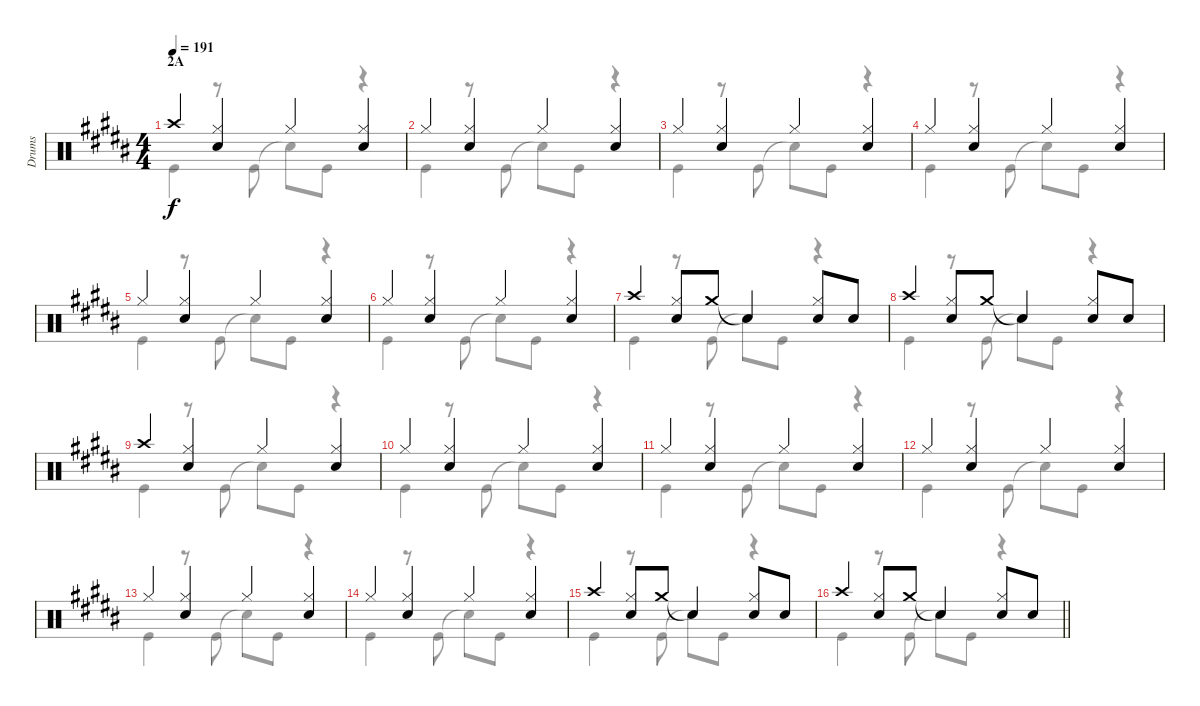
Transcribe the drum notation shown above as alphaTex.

\track ("Drums" "Drums") {instrument percussion}
\staff {score}
\articulation defaults
\voice
\ts (4 4)
\section ("" "2A")
\tempo 191
\clef neutral
\ks b "Crash high (hit)".4{dy f}
("Hi-Hat (closed)" "Snare (hit) 2").4 "Hi-Hat (closed)".4 ("Hi-Hat (closed)" "Snare (hit) 2").4 |
"Hi-Hat (closed)".4 ("Hi-Hat (closed)" "Snare (hit) 2").4 "Hi-Hat (closed)".4 ("Hi-Hat (closed)" "Snare (hit) 2").4 |
"Hi-Hat (closed)".4 ("Hi-Hat (closed)" "Snare (hit) 2").4 "Hi-Hat (closed)".4 ("Hi-Hat (closed)" "Snare (hit) 2").4 |
"Hi-Hat (closed)".4 ("Hi-Hat (closed)" "Snare (hit) 2").4 "Hi-Hat (closed)".4 ("Hi-Hat (closed)" "Snare (hit) 2").4 |
"Hi-Hat (closed)".4 ("Hi-Hat (closed)" "Snare (hit) 2").4 "Hi-Hat (closed)".4 ("Hi-Hat (closed)" "Snare (hit) 2").4 |
"Hi-Hat (closed)".4 ("Hi-Hat (closed)" "Snare (hit) 2").4 "Hi-Hat (closed)".4 ("Hi-Hat (closed)" "Snare (hit) 2").4 |
"Crash high (hit)".4 ("Hi-Hat (closed)" "Snare (hit) 2").8 "Crash medium (hit)".8 "Snare (hit)"{t}.4 ("Hi-Hat (closed)" "Snare (hit) 2").8 "Snare (hit) 2".8 |
"Crash high (hit)".4 ("Hi-Hat (closed)" "Snare (hit) 2").8 "Crash medium (hit)".8 "Snare (hit)"{t}.4 ("Hi-Hat (closed)" "Snare (hit) 2").8 "Snare (hit) 2".8 |
"Crash high (hit)".4 ("Hi-Hat (closed)" "Snare (hit) 2").4 "Hi-Hat (closed)".4 ("Hi-Hat (closed)" "Snare (hit) 2").4 |
"Hi-Hat (closed)".4 ("Hi-Hat (closed)" "Snare (hit) 2").4 "Hi-Hat (closed)".4 ("Hi-Hat (closed)" "Snare (hit) 2").4 |
"Hi-Hat (closed)".4 ("Hi-Hat (closed)" "Snare (hit) 2").4 "Hi-Hat (closed)".4 ("Hi-Hat (closed)" "Snare (hit) 2").4 |
"Hi-Hat (closed)".4 ("Hi-Hat (closed)" "Snare (hit) 2").4 "Hi-Hat (closed)".4 ("Hi-Hat (closed)" "Snare (hit) 2").4 |
"Hi-Hat (closed)".4 ("Hi-Hat (closed)" "Snare (hit) 2").4 "Hi-Hat (closed)".4 ("Hi-Hat (closed)" "Snare (hit) 2").4 |
"Hi-Hat (closed)".4 ("Hi-Hat (closed)" "Snare (hit) 2").4 "Hi-Hat (closed)".4 ("Hi-Hat (closed)" "Snare (hit) 2").4 |
"Crash high (hit)".4 ("Hi-Hat (closed)" "Snare (hit) 2").8 "Crash medium (hit)".8 "Snare (hit)"{t}.4 ("Hi-Hat (closed)" "Snare (hit) 2").8 "Snare (hit) 2".8 |
\barLineRight lightlight "Crash high (hit)".4
("Hi-Hat (closed)" "Snare (hit) 2").8 "Crash medium (hit)".8 "Snare (hit)"{t}.4 ("Hi-Hat (closed)" "Snare (hit) 2").8 "Snare (hit) 2".8
\voice
\clef neutral
\ottava regular
\simile none
\ks b "Kick (hit)".4{dy f}
r.8 "Kick (hit)".8 "Snare (hit)"{t}.8 "Kick (hit)".8 r.4 |
"Kick (hit)".4 r.8 "Kick (hit)".8 "Snare (hit)"{t}.8 "Kick (hit)".8 r.4 |
"Kick (hit)".4 r.8 "Kick (hit)".8 "Snare (hit)"{t}.8 "Kick (hit)".8 r.4 |
"Kick (hit)".4 r.8 "Kick (hit)".8 "Snare (hit)"{t}.8 "Kick (hit)".8 r.4 |
"Kick (hit)".4 r.8 "Kick (hit)".8 "Snare (hit)"{t}.8 "Kick (hit)".8 r.4 |
"Kick (hit)".4 r.8 "Kick (hit)".8 "Snare (hit)"{t}.8 "Kick (hit)".8 r.4 |
"Kick (hit)".4 r.8 "Kick (hit)".8 "Snare (hit)"{t}.8 "Kick (hit)".8 r.4 |
"Kick (hit)".4 r.8 "Kick (hit)".8 "Snare (hit)"{t}.8 "Kick (hit)".8 r.4 |
"Kick (hit)".4 r.8 "Kick (hit)".8 "Snare (hit)"{t}.8 "Kick (hit)".8 r.4 |
"Kick (hit)".4 r.8 "Kick (hit)".8 "Snare (hit)"{t}.8 "Kick (hit)".8 r.4 |
"Kick (hit)".4 r.8 "Kick (hit)".8 "Snare (hit)"{t}.8 "Kick (hit)".8 r.4 |
"Kick (hit)".4 r.8 "Kick (hit)".8 "Snare (hit)"{t}.8 "Kick (hit)".8 r.4 |
"Kick (hit)".4 r.8 "Kick (hit)".8 "Snare (hit)"{t}.8 "Kick (hit)".8 r.4 |
"Kick (hit)".4 r.8 "Kick (hit)".8 "Snare (hit)"{t}.8 "Kick (hit)".8 r.4 |
"Kick (hit)".4 r.8 "Kick (hit)".8 "Snare (hit)"{t}.8 "Kick (hit)".8 r.4 |
\barLineRight lightlight "Kick (hit)".4
r.8 "Kick (hit)".8 "Snare (hit)"{t}.8 "Kick (hit)".8 r.4
